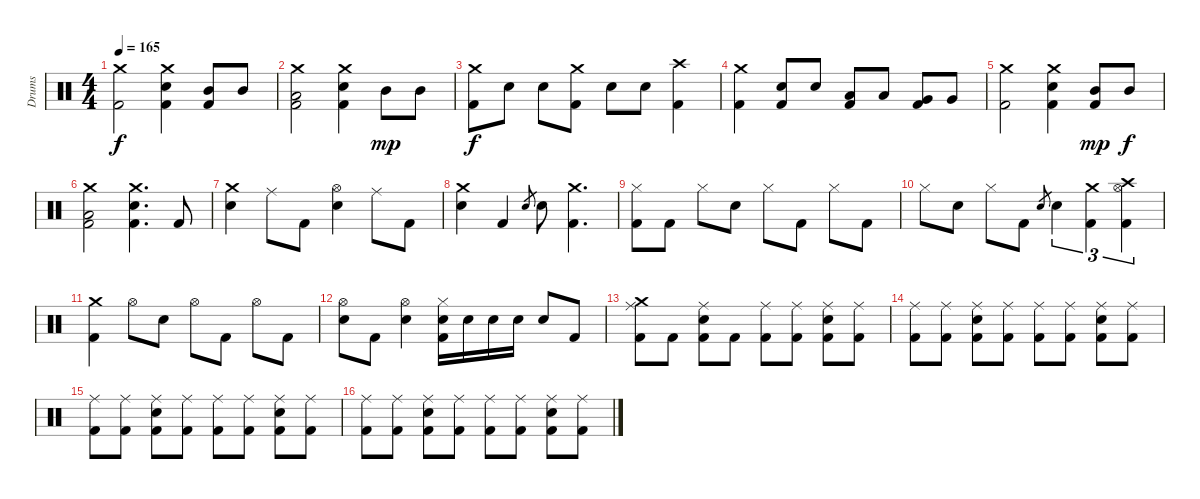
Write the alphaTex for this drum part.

\track ("Drums" "Drums") {instrument percussion}
\staff {score}
\articulation defaults
\ts (4 4)
\tempo 165
\clef neutral
\ks c
("Crash medium (hit)" "Kick (hit) 2").2{dy f} ("Crash medium (hit)" "Electric Snare (hit)" "Kick (hit) 2").4 ("Mid Tom (hit)" "Kick (hit) 2").8 "Mid Tom (hit)".8 |
("Crash medium (hit)" "Low Tom (hit)" "Kick (hit) 2").2 ("Crash medium (hit)" "Electric Snare (hit)" "Kick (hit) 2").4 "Mid Tom (hit)".8{dy mp} "Mid Tom (hit)".8 |
("Crash medium (hit)" "Kick (hit) 2").8{dy f} "Electric Snare (hit)".8 "Electric Snare (hit)".8 ("Crash medium (hit)" "Kick (hit) 2").8 "Electric Snare (hit)".8 "Electric Snare (hit)".8 ("Crash high (hit)" "Kick (hit) 2").4 |
("Crash medium (hit)" "Kick (hit) 2").4 ("Electric Snare (hit)" "Kick (hit) 2").8 "Electric Snare (hit)".8 ("Low Tom (hit)" "Kick (hit) 2").8 "Low Tom (hit)".8 ("Very Low Tom (hit)" "Kick (hit) 2").8 "Very Low Tom (hit)".8 |
("Crash medium (hit)" "Kick (hit) 2").2 ("Crash medium (hit)" "Electric Snare (hit)" "Kick (hit) 2").4 ("Mid Tom (hit)" "Kick (hit) 2").8{dy mp} "Mid Tom (hit)".8{dy f} |
("Crash medium (hit)" "Low Tom (hit)" "Kick (hit) 2").2 ("Crash medium (hit)" "Electric Snare (hit)" "Kick (hit) 2").4{d} "Kick (hit) 2".8 |
("Crash medium (hit)" "Electric Snare (hit)").4 "Ride (middle)".8 "Kick (hit) 2".8 ("Hi-Hat (open)" "Electric Snare (hit)").4 "Ride (middle)".8 "Kick (hit) 2".8 |
("Crash medium (hit)" "Electric Snare (hit)").4 "Kick (hit) 2".4 "Electric Snare (hit)".8{gr} "Electric Snare (hit)".8 ("Crash medium (hit)" "Kick (hit) 2").4{d} |
("Hi-Hat (closed)" "Kick (hit) 2").8 "Kick (hit) 2".8 "Hi-Hat (closed)".8 "Electric Snare (hit)".8 "Hi-Hat (closed)".8 "Kick (hit) 2".8 "Hi-Hat (closed)".8 "Kick (hit) 2".8 |
"Hi-Hat (closed)".8 "Electric Snare (hit)".8 "Hi-Hat (closed)".8 "Kick (hit) 2".8 "Electric Snare (hit)".8{gr} "Electric Snare (hit)".4{tu (3 2)} ("Crash medium (hit)" "Kick (hit) 2").4{tu (3 2)} ("Crash high (hit)" "Hi-Hat (open)" "Kick (hit) 2").4{tu (3 2)} |
("Crash medium (hit)" "Kick (hit) 2").4 "Hi-Hat (open)".8 "Electric Snare (hit)".8 "Hi-Hat (open)".8 "Kick (hit) 2".8 "Hi-Hat (open)".8 "Kick (hit) 2".8 |
("Hi-Hat (open)" "Electric Snare (hit)").8 "Kick (hit) 2".8 ("Hi-Hat (open)" "Electric Snare (hit)").4 ("Hi-Hat (closed)" "Electric Snare (hit)" "Kick (hit) 2").16 "Electric Snare (hit)".16 "Electric Snare (hit)".16 "Electric Snare (hit)".16 "Electric Snare (hit)".8 "Kick (hit) 2".8 |
("Crash medium (hit)" "Ride (middle)" "Kick (hit) 2").8 "Kick (hit) 2".8 ("Ride (middle)" "Electric Snare (hit)" "Kick (hit) 2").8 "Kick (hit) 2".8 ("Ride (middle)" "Kick (hit) 2").8 ("Ride (middle)" "Kick (hit) 2").8 ("Ride (middle)" "Electric Snare (hit)" "Kick (hit) 2").8 ("Ride (middle)" "Kick (hit) 2").8 |
("Ride (middle)" "Kick (hit) 2").8 ("Ride (middle)" "Kick (hit) 2").8 ("Ride (middle)" "Electric Snare (hit)" "Kick (hit) 2").8 ("Ride (middle)" "Kick (hit) 2").8 ("Ride (middle)" "Kick (hit) 2").8 ("Ride (middle)" "Kick (hit) 2").8 ("Ride (middle)" "Electric Snare (hit)" "Kick (hit) 2").8 ("Ride (middle)" "Kick (hit) 2").8 |
("Ride (middle)" "Kick (hit) 2").8 ("Ride (middle)" "Kick (hit) 2").8 ("Ride (middle)" "Electric Snare (hit)" "Kick (hit) 2").8 ("Ride (middle)" "Kick (hit) 2").8 ("Ride (middle)" "Kick (hit) 2").8 ("Ride (middle)" "Kick (hit) 2").8 ("Ride (middle)" "Electric Snare (hit)" "Kick (hit) 2").8 ("Ride (middle)" "Kick (hit) 2").8 |
("Ride (middle)" "Kick (hit) 2").8 ("Ride (middle)" "Kick (hit) 2").8 ("Ride (middle)" "Electric Snare (hit)" "Kick (hit) 2").8 ("Ride (middle)" "Kick (hit) 2").8 ("Ride (middle)" "Kick (hit) 2").8 ("Ride (middle)" "Kick (hit) 2").8 ("Ride (middle)" "Electric Snare (hit)" "Kick (hit) 2").8 ("Ride (middle)" "Kick (hit) 2").8
